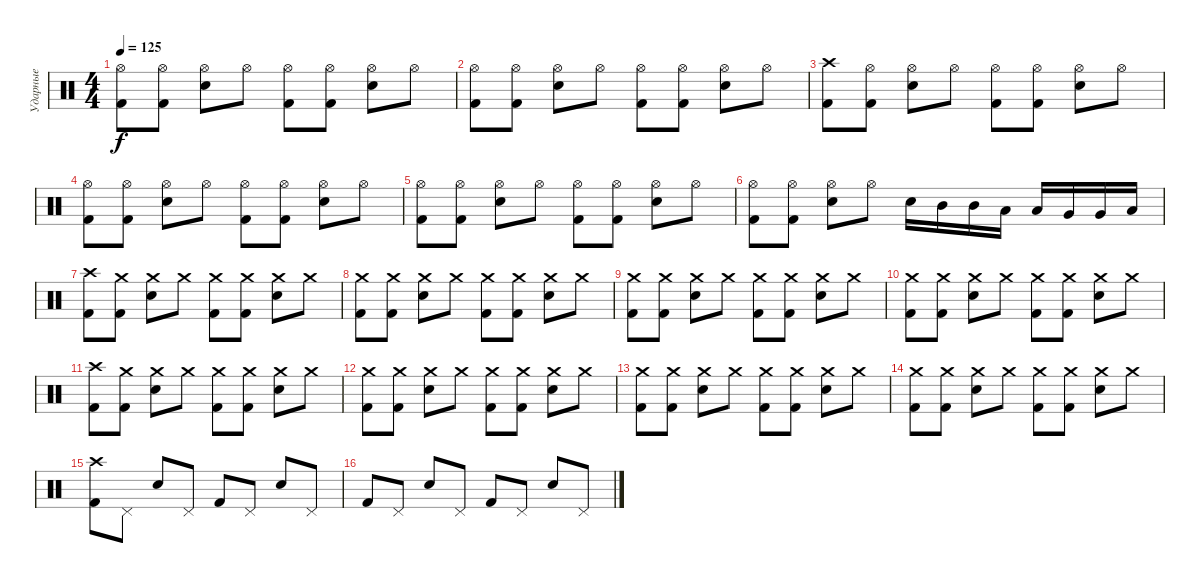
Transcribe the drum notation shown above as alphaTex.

\track ("Ударные" "Ударные") {instrument percussion}
\staff {score}
\articulation defaults
\ts (4 4)
\tempo 125
\clef neutral
\ks c
("Hi-Hat (open)" "Kick (hit) 2").8{dy f} ("Hi-Hat (open)" "Kick (hit) 2").8 ("Hi-Hat (open)" "Snare (hit) 2").8 "Hi-Hat (open)".8 ("Hi-Hat (open)" "Kick (hit) 2").8 ("Hi-Hat (open)" "Kick (hit) 2").8 ("Hi-Hat (open)" "Snare (hit) 2").8 "Hi-Hat (open)".8 |
("Hi-Hat (open)" "Kick (hit) 2").8 ("Hi-Hat (open)" "Kick (hit) 2").8 ("Hi-Hat (open)" "Snare (hit) 2").8 "Hi-Hat (open)".8 ("Hi-Hat (open)" "Kick (hit) 2").8 ("Hi-Hat (open)" "Kick (hit) 2").8 ("Hi-Hat (open)" "Snare (hit) 2").8 "Hi-Hat (open)".8 |
("Crash high (hit)" "Kick (hit) 2").8 ("Hi-Hat (open)" "Kick (hit) 2").8 ("Hi-Hat (open)" "Snare (hit) 2").8 "Hi-Hat (open)".8 ("Hi-Hat (open)" "Kick (hit) 2").8 ("Hi-Hat (open)" "Kick (hit) 2").8 ("Hi-Hat (open)" "Snare (hit) 2").8 "Hi-Hat (open)".8 |
("Hi-Hat (open)" "Kick (hit) 2").8 ("Hi-Hat (open)" "Kick (hit) 2").8 ("Hi-Hat (open)" "Snare (hit) 2").8 "Hi-Hat (open)".8 ("Hi-Hat (open)" "Kick (hit) 2").8 ("Hi-Hat (open)" "Kick (hit) 2").8 ("Hi-Hat (open)" "Snare (hit) 2").8 "Hi-Hat (open)".8 |
("Hi-Hat (open)" "Kick (hit) 2").8 ("Hi-Hat (open)" "Kick (hit) 2").8 ("Hi-Hat (open)" "Snare (hit) 2").8 "Hi-Hat (open)".8 ("Hi-Hat (open)" "Kick (hit) 2").8 ("Hi-Hat (open)" "Kick (hit) 2").8 ("Hi-Hat (open)" "Snare (hit) 2").8 "Hi-Hat (open)".8 |
("Hi-Hat (open)" "Kick (hit) 2").8 ("Hi-Hat (open)" "Kick (hit) 2").8 ("Hi-Hat (open)" "Snare (hit) 2").8 "Hi-Hat (open)".8 "Snare (hit) 2".16 "Mid Tom (hit)".16 "Mid Tom (hit)".16 "Low Tom (hit)".16 "Low Tom (hit)".16 "Very Low Tom (hit)".16 "Very Low Tom (hit)".16 "Low Floor Tom (hit)".16 |
("Crash high (hit)" "Kick (hit) 2").8 ("Crash medium (hit)" "Kick (hit) 2").8 ("Crash medium (hit)" "Snare (hit) 2").8 "Crash medium (hit)".8 ("Crash medium (hit)" "Kick (hit) 2").8 ("Crash medium (hit)" "Kick (hit) 2").8 ("Crash medium (hit)" "Snare (hit) 2").8 "Crash medium (hit)".8 |
("Crash medium (hit)" "Kick (hit) 2").8 ("Crash medium (hit)" "Kick (hit) 2").8 ("Crash medium (hit)" "Snare (hit) 2").8 "Crash medium (hit)".8 ("Crash medium (hit)" "Kick (hit) 2").8 ("Crash medium (hit)" "Kick (hit) 2").8 ("Crash medium (hit)" "Snare (hit) 2").8 "Crash medium (hit)".8 |
("Crash medium (hit)" "Kick (hit) 2").8 ("Crash medium (hit)" "Kick (hit) 2").8 ("Crash medium (hit)" "Snare (hit) 2").8 "Crash medium (hit)".8 ("Crash medium (hit)" "Kick (hit) 2").8 ("Crash medium (hit)" "Kick (hit) 2").8 ("Crash medium (hit)" "Snare (hit) 2").8 "Crash medium (hit)".8 |
("Crash medium (hit)" "Kick (hit) 2").8 ("Crash medium (hit)" "Kick (hit) 2").8 ("Crash medium (hit)" "Snare (hit) 2").8 "Crash medium (hit)".8 ("Crash medium (hit)" "Kick (hit) 2").8 ("Crash medium (hit)" "Kick (hit) 2").8 ("Crash medium (hit)" "Snare (hit) 2").8 "Crash medium (hit)".8 |
("Crash high (hit)" "Kick (hit) 2").8 ("Crash medium (hit)" "Kick (hit) 2").8 ("Crash medium (hit)" "Snare (hit) 2").8 "Crash medium (hit)".8 ("Crash medium (hit)" "Kick (hit) 2").8 ("Crash medium (hit)" "Kick (hit) 2").8 ("Crash medium (hit)" "Snare (hit) 2").8 "Crash medium (hit)".8 |
("Crash medium (hit)" "Kick (hit) 2").8 ("Crash medium (hit)" "Kick (hit) 2").8 ("Crash medium (hit)" "Snare (hit) 2").8 "Crash medium (hit)".8 ("Crash medium (hit)" "Kick (hit) 2").8 ("Crash medium (hit)" "Kick (hit) 2").8 ("Crash medium (hit)" "Snare (hit) 2").8 "Crash medium (hit)".8 |
("Crash medium (hit)" "Kick (hit) 2").8 ("Crash medium (hit)" "Kick (hit) 2").8 ("Crash medium (hit)" "Snare (hit) 2").8 "Crash medium (hit)".8 ("Crash medium (hit)" "Kick (hit) 2").8 ("Crash medium (hit)" "Kick (hit) 2").8 ("Crash medium (hit)" "Snare (hit) 2").8 "Crash medium (hit)".8 |
("Crash medium (hit)" "Kick (hit) 2").8 ("Crash medium (hit)" "Kick (hit) 2").8 ("Crash medium (hit)" "Snare (hit) 2").8 "Crash medium (hit)".8 ("Crash medium (hit)" "Kick (hit) 2").8 ("Crash medium (hit)" "Kick (hit) 2").8 ("Crash medium (hit)" "Snare (hit) 2").8 "Crash medium (hit)".8 |
("Crash high (hit)" "Kick (hit) 2").8 "Pedal Hi-Hat (hit)".8 "Snare (hit) 2".8 "Pedal Hi-Hat (hit)".8 "Kick (hit) 2".8 "Pedal Hi-Hat (hit)".8 "Snare (hit) 2".8 "Pedal Hi-Hat (hit)".8 |
"Kick (hit) 2".8 "Pedal Hi-Hat (hit)".8 "Snare (hit) 2".8 "Pedal Hi-Hat (hit)".8 "Kick (hit) 2".8 "Pedal Hi-Hat (hit)".8 "Snare (hit) 2".8 "Pedal Hi-Hat (hit)".8
